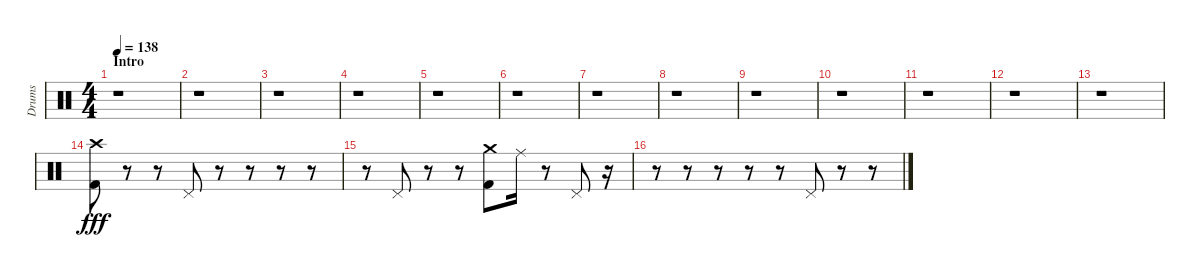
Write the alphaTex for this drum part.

\track ("Drums" "Drums") {instrument percussion}
\staff {score}
\articulation defaults
\ts (4 4)
\section ("" "Intro")
\tempo 138
\tempo 200
\tempo 138
\clef neutral
\ks c
r.1{dy fff} |
r.1 |
r.1 |
r.1 |
r.1 |
r.1 |
r.1 |
r.1 |
r.1 |
r.1 |
r.1 |
r.1 |
r.1 |
("Crash high (hit)" "Kick (hit) 2").8 r.8 r.8 "Pedal Hi-Hat (hit)".8 r.8 r.8 r.8 r.8 |
r.8 "Pedal Hi-Hat (hit)".8 r.8 r.8 ("Crash medium (hit)" "Kick (hit) 2").8 "Ride (middle)".16 r.8 "Pedal Hi-Hat (hit)".8 r.16 |
r.8 r.8 r.8 r.8 r.8 "Pedal Hi-Hat (hit)".8 r.8 r.8
